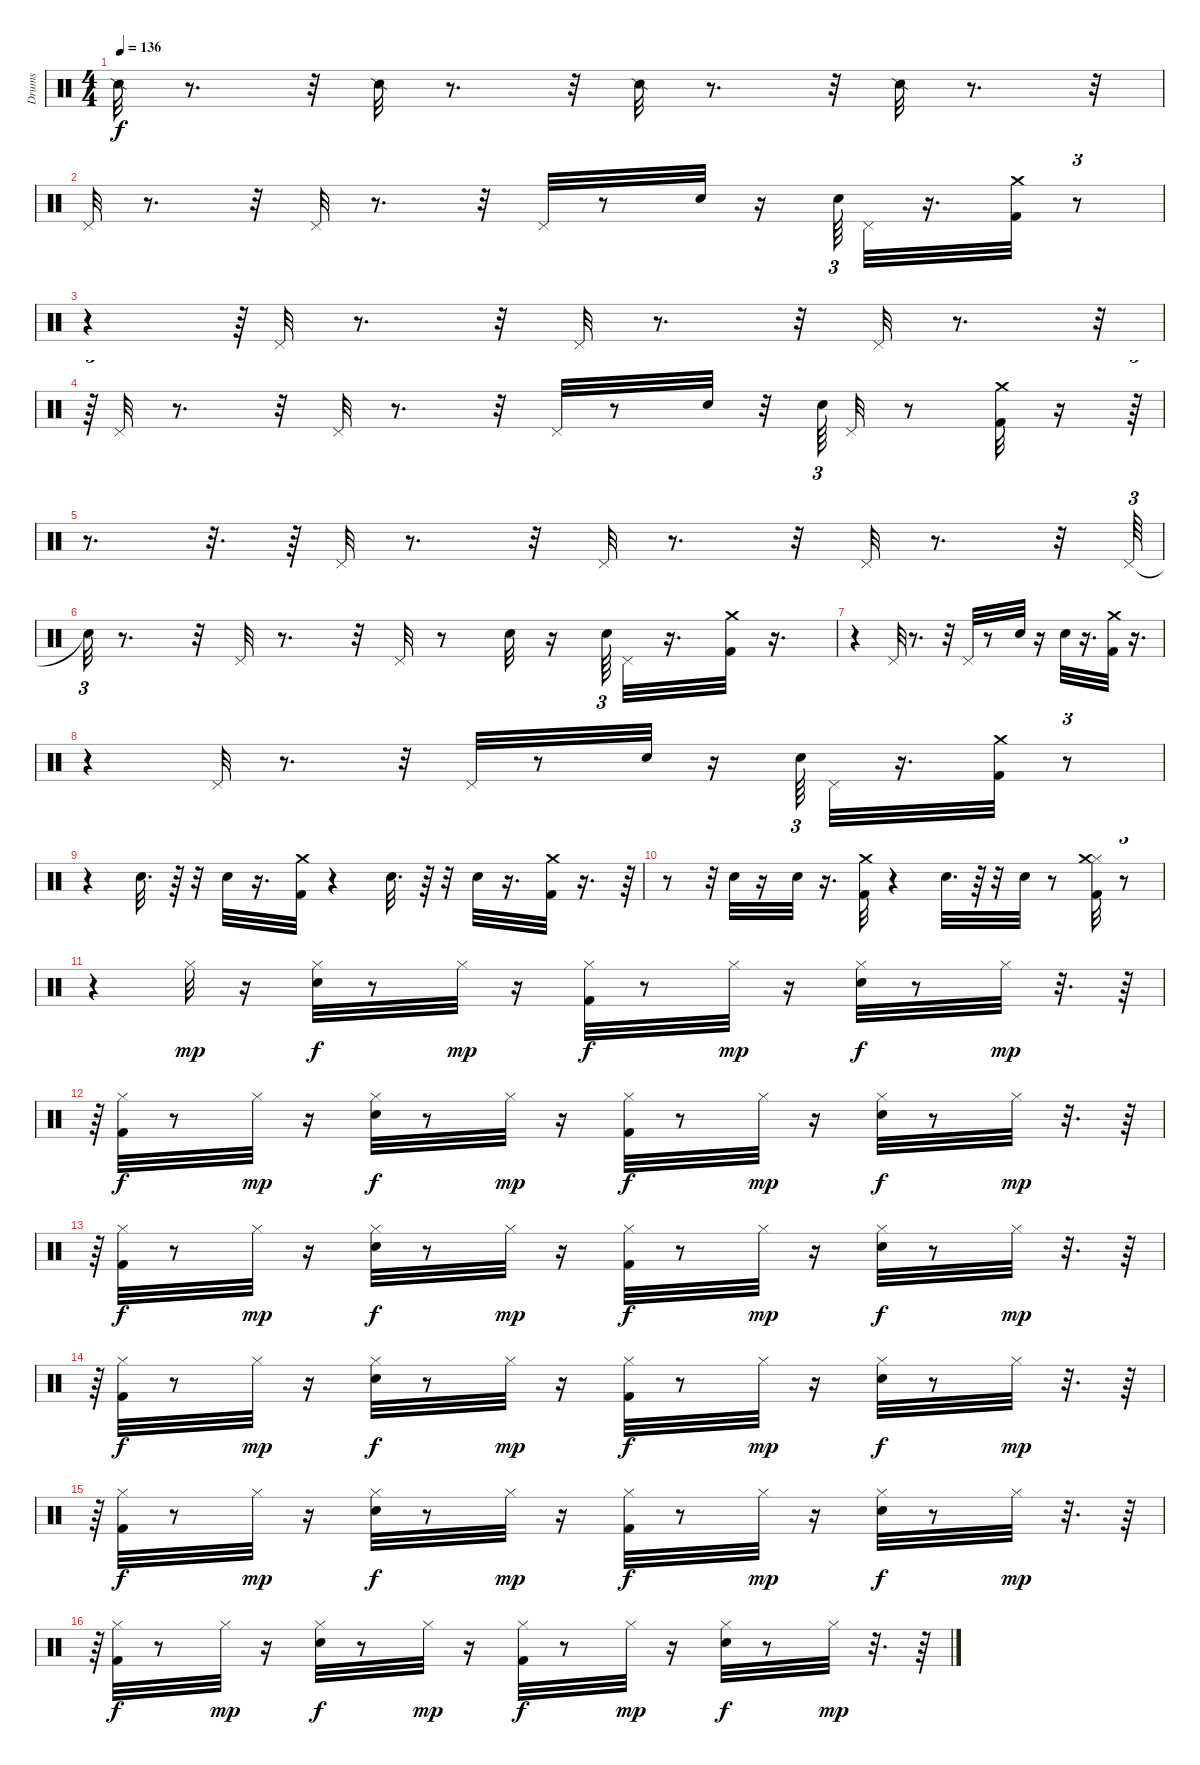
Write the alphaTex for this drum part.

\track ("Drums" "Drums") {instrument percussion}
\staff {score}
\articulation defaults
\ts (4 4)
\tempo 136
\clef neutral
\ks c "Snare (side stick) 2".32{dy f}
r.8{d} r.32 "Snare (side stick) 2".32 r.8{d} r.32 "Snare (side stick) 2".32 r.8{d} r.32 "Snare (side stick) 2".32 r.8{d} r.32 |
"Pedal Hi-Hat (hit)".32 r.8{d} r.32 "Pedal Hi-Hat (hit)".32 r.8{d} r.32 "Pedal Hi-Hat (hit)".32 r.8 "Electric Snare (hit)".32 r.16 "Electric Snare (hit)".64{tu (3 2)} "Pedal Hi-Hat (hit)".32 r.16{d} ("Crash medium (hit)" "Kick (hit) 2").32 r.8{tu (3 2)} |
r.4 r.64{tu (3 2)} "Pedal Hi-Hat (hit)".32 r.8{d} r.32 "Pedal Hi-Hat (hit)".32 r.8{d} r.32 "Pedal Hi-Hat (hit)".32 r.8{d} r.32{tu (3 2)} |
r.64{tu (3 2)} "Pedal Hi-Hat (hit)".32 r.8{d} r.32 "Pedal Hi-Hat (hit)".32 r.8{d} r.32 "Pedal Hi-Hat (hit)".32 r.8 "Electric Snare (hit)".32 r.32 "Electric Snare (hit)".64{tu (3 2)} "Pedal Hi-Hat (hit)".32 r.8 ("Crash medium (hit)" "Kick (hit) 2").32 r.16 r.64{tu (3 2)} |
r.8{d} r.32{d} r.64 "Pedal Hi-Hat (hit)".32 r.8{d} r.32 "Pedal Hi-Hat (hit)".32 r.8{d} r.32 "Pedal Hi-Hat (hit)".32 r.8{d} r.32 "Pedal Hi-Hat (hit)".64{tu (3 2)} |
"Snare (hit)"{t}.32{tu (3 2)} r.8{d} r.32 "Pedal Hi-Hat (hit)".32 r.8{d} r.32 "Pedal Hi-Hat (hit)".32 r.8 "Electric Snare (hit)".32 r.16 "Electric Snare (hit)".64{tu (3 2)} "Pedal Hi-Hat (hit)".32 r.16{d} ("Crash medium (hit)" "Kick (hit) 2").32 r.16{d} |
r.4 "Pedal Hi-Hat (hit)".32 r.8{d} r.32 "Pedal Hi-Hat (hit)".32 r.8 "Electric Snare (hit)".32 r.16 "Electric Snare (hit)".32 r.16{d} ("Crash medium (hit)" "Kick (hit) 2").32 r.16{d} |
r.4 "Pedal Hi-Hat (hit)".32 r.8{d} r.32 "Pedal Hi-Hat (hit)".32 r.8 "Electric Snare (hit)".32 r.16 "Electric Snare (hit)".64{tu (3 2)} "Pedal Hi-Hat (hit)".32 r.16{d} ("Kick (hit) 2" "Crash medium (hit)").32 r.8{tu (3 2)} |
r.4{tu (3 2)} "Electric Snare (hit)".32{d} r.64 r.32 "Electric Snare (hit)".32 r.16{d} ("Crash medium (hit)" "Kick (hit) 2").32 r.4 "Electric Snare (hit)".32{d} r.64 r.32 "Electric Snare (hit)".32 r.16{d} ("Crash medium (hit)" "Kick (hit) 2").32 r.16{d} r.64{tu (3 2)} |
r.8 r.32{tu (3 2)} "Electric Snare (hit)".32 r.16 "Electric Snare (hit)".32 r.16{d} ("Crash medium (hit)" "Kick (hit) 2").32 r.4 "Electric Snare (hit)".32{d} r.64 r.32 "Electric Snare (hit)".32 r.8 ("Hi-Hat (closed)" "Crash medium (hit)" "Kick (hit) 2").32 r.8{tu (3 2)} |
r.4{tu (3 2)} "Hi-Hat (closed)".32{dy mp} r.16 ("Hi-Hat (closed)" "Electric Snare (hit)").32{dy f} r.8 "Hi-Hat (closed)".32{dy mp} r.16 ("Hi-Hat (closed)" "Kick (hit) 2").32{dy f} r.8 "Hi-Hat (closed)".32{dy mp} r.16 ("Hi-Hat (closed)" "Electric Snare (hit)").32{dy f} r.8 "Hi-Hat (closed)".32{dy mp} r.32{d} r.64 |
r.64{tu (3 2)} ("Kick (hit) 2" "Hi-Hat (closed)").32{dy f} r.8 "Hi-Hat (closed)".32{dy mp} r.16 ("Hi-Hat (closed)" "Electric Snare (hit)").32{dy f} r.8 "Hi-Hat (closed)".32{dy mp} r.16 ("Hi-Hat (closed)" "Kick (hit) 2").32{dy f} r.8 "Hi-Hat (closed)".32{dy mp} r.16 ("Hi-Hat (closed)" "Electric Snare (hit)").32{dy f} r.8 "Hi-Hat (closed)".32{dy mp} r.32{d} r.64 |
r.64{tu (3 2)} ("Kick (hit) 2" "Hi-Hat (closed)").32{dy f} r.8 "Hi-Hat (closed)".32{dy mp} r.16 ("Hi-Hat (closed)" "Electric Snare (hit)").32{dy f} r.8 "Hi-Hat (closed)".32{dy mp} r.16 ("Hi-Hat (closed)" "Kick (hit) 2").32{dy f} r.8 "Hi-Hat (closed)".32{dy mp} r.16 ("Hi-Hat (closed)" "Electric Snare (hit)").32{dy f} r.8 "Hi-Hat (closed)".32{dy mp} r.32{d} r.64 |
r.64{tu (3 2)} ("Kick (hit) 2" "Hi-Hat (closed)").32{dy f} r.8 "Hi-Hat (closed)".32{dy mp} r.16 ("Hi-Hat (closed)" "Electric Snare (hit)").32{dy f} r.8 "Hi-Hat (closed)".32{dy mp} r.16 ("Hi-Hat (closed)" "Kick (hit) 2").32{dy f} r.8 "Hi-Hat (closed)".32{dy mp} r.16 ("Hi-Hat (closed)" "Electric Snare (hit)").32{dy f} r.8 "Hi-Hat (closed)".32{dy mp} r.32{d} r.64 |
r.64{tu (3 2)} ("Kick (hit) 2" "Hi-Hat (closed)").32{dy f} r.8 "Hi-Hat (closed)".32{dy mp} r.16 ("Hi-Hat (closed)" "Electric Snare (hit)").32{dy f} r.8 "Hi-Hat (closed)".32{dy mp} r.16 ("Hi-Hat (closed)" "Kick (hit) 2").32{dy f} r.8 "Hi-Hat (closed)".32{dy mp} r.16 ("Hi-Hat (closed)" "Electric Snare (hit)").32{dy f} r.8 "Hi-Hat (closed)".32{dy mp} r.32{d} r.64 |
r.64{tu (3 2)} ("Kick (hit) 2" "Hi-Hat (closed)").32{dy f} r.8 "Hi-Hat (closed)".32{dy mp} r.16 ("Hi-Hat (closed)" "Electric Snare (hit)").32{dy f} r.8 "Hi-Hat (closed)".32{dy mp} r.16 ("Hi-Hat (closed)" "Kick (hit) 2").32{dy f} r.8 "Hi-Hat (closed)".32{dy mp} r.16 ("Hi-Hat (closed)" "Electric Snare (hit)").32{dy f} r.8 "Hi-Hat (closed)".32{dy mp} r.32{d} r.64
